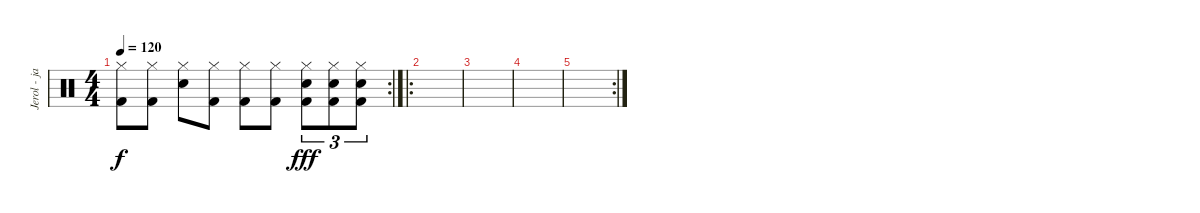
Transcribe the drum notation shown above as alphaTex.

\track ("Jerol - jazm." "Jerol - ja") {instrument percussion}
\staff {score}
\articulation defaults
\rc 2
\ts (4 4)
\tempo 120
\clef neutral
\ks c
("Hi-Hat (closed)" "Kick (hit) 2").8{dy f} ("Hi-Hat (closed)" "Kick (hit) 2").8 ("Hi-Hat (closed)" "Snare (hit) 2").8 ("Hi-Hat (closed)" "Kick (hit) 2").8 ("Hi-Hat (closed)" "Kick (hit) 2").8 ("Hi-Hat (closed)" "Kick (hit) 2").8 ("Kick (hit) 2" "Hi-Hat (closed)" "Electric Snare (hit)").8{tu (3 2) dy fff} ("Kick (hit) 2" "Hi-Hat (closed)" "Electric Snare (hit)").8{tu (3 2)} ("Kick (hit) 2" "Hi-Hat (closed)" "Electric Snare (hit)").8{tu (3 2)} |
\ro
|
|
|
\rc 2
